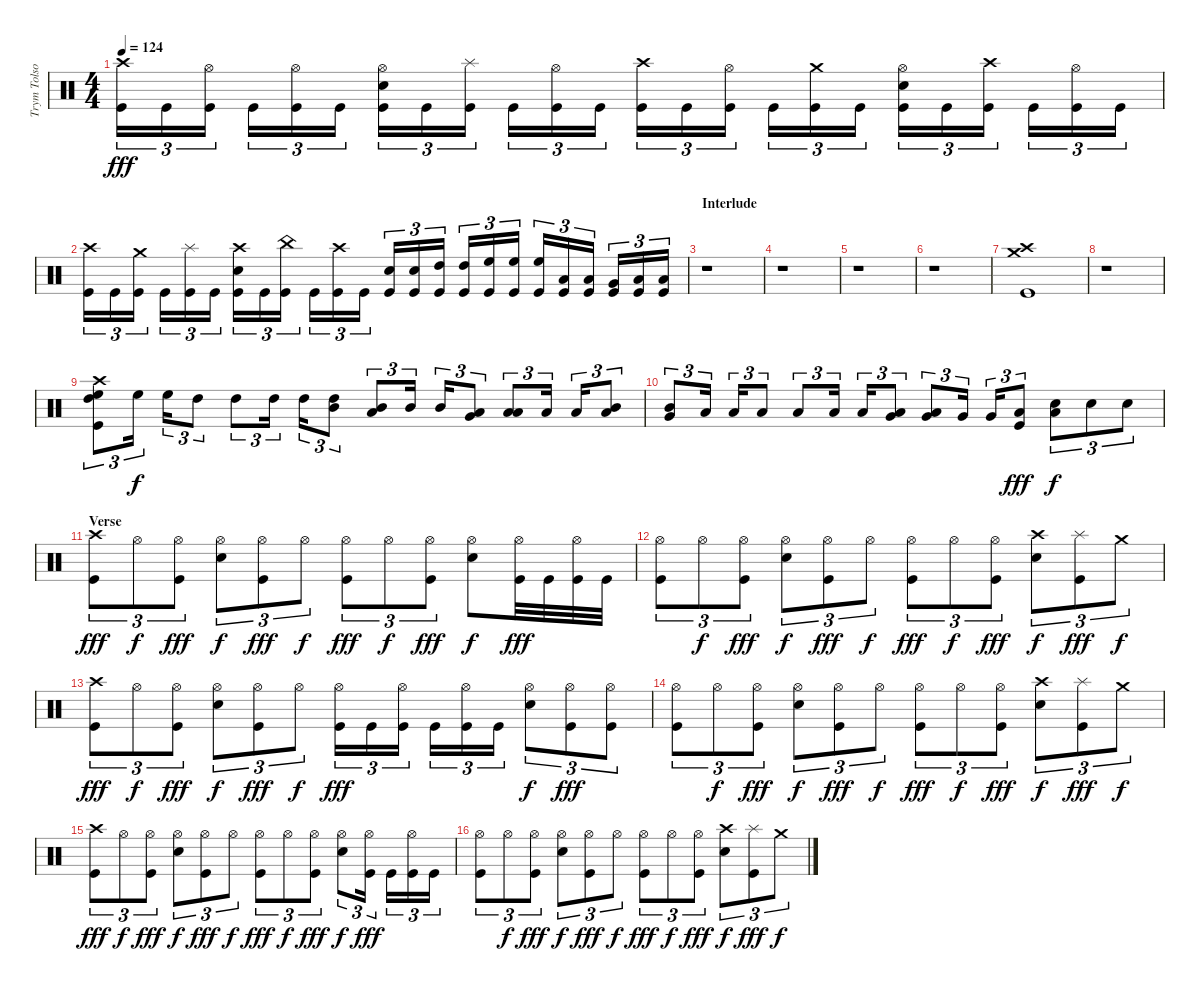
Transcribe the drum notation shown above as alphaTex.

\track ("Trym Tolson" "Trym Tolso") {instrument percussion}
\staff {score}
\articulation defaults
\ts (4 4)
\tempo 124
\clef neutral
\ks c
("Crash high (hit)" "Kick (hit)").16{tu (3 2) dy fff} "Kick (hit)".16{tu (3 2)} ("Hi-Hat (open)" "Kick (hit)").16{tu (3 2)} "Kick (hit)".16{tu (3 2)} ("Hi-Hat (open)" "Kick (hit)").16{tu (3 2)} "Kick (hit)".16{tu (3 2)} ("Hi-Hat (open)" "Electric Snare (hit)" "Kick (hit)").16{tu (3 2)} "Kick (hit)".16{tu (3 2)} ("Splash (hit)" "Kick (hit)").16{tu (3 2)} "Kick (hit)".16{tu (3 2)} ("Hi-Hat (open)" "Kick (hit)").16{tu (3 2)} "Kick (hit)".16{tu (3 2)} ("Crash high (hit)" "Kick (hit)").16{tu (3 2)} "Kick (hit)".16{tu (3 2)} ("Hi-Hat (open)" "Kick (hit)").16{tu (3 2)} "Kick (hit)".16{tu (3 2)} ("Crash medium (hit)" "Kick (hit)").16{tu (3 2)} "Kick (hit)".16{tu (3 2)} ("Hi-Hat (open)" "Electric Snare (hit)" "Kick (hit)").16{tu (3 2)} "Kick (hit)".16{tu (3 2)} ("Crash high (hit)" "Kick (hit)").16{tu (3 2)} "Kick (hit)".16{tu (3 2)} ("Hi-Hat (open)" "Kick (hit)").16{tu (3 2)} "Kick (hit)".16{tu (3 2)} |
("Crash high (hit)" "Kick (hit)").16{tu (3 2)} "Kick (hit)".16{tu (3 2)} ("Crash medium (hit)" "Kick (hit)").16{tu (3 2)} "Kick (hit)".16{tu (3 2)} ("Splash (hit)" "Kick (hit)").16{tu (3 2)} "Kick (hit)".16{tu (3 2)} ("Crash high (hit)" "Electric Snare (hit)" "Kick (hit)").16{tu (3 2)} "Kick (hit)".16{tu (3 2)} ("China (hit)" "Kick (hit)").16{tu (3 2)} "Kick (hit)".16{tu (3 2)} ("Crash high (hit)" "Kick (hit)").16{tu (3 2)} "Kick (hit)".16{tu (3 2)} ("Electric Snare (hit)" "Kick (hit)").16{tu (3 2)} ("Electric Snare (hit)" "Kick (hit)").16{tu (3 2)} ("High Tom (hit)" "Kick (hit)").16{tu (3 2)} ("High Tom (hit)" "Kick (hit)").16{tu (3 2)} ("High Floor Tom (hit)" "Kick (hit)").16{tu (3 2)} ("High Floor Tom (hit)" "Kick (hit)").16{tu (3 2)} ("High Floor Tom (hit)" "Kick (hit)").16{tu (3 2)} ("Low Tom (hit)" "Kick (hit)").16{tu (3 2)} ("Low Tom (hit)" "Kick (hit)").16{tu (3 2)} ("Very Low Tom (hit)" "Kick (hit)").16{tu (3 2)} ("Low Floor Tom (hit)" "Kick (hit)").16{tu (3 2)} ("Low Floor Tom (hit)" "Kick (hit)").16{tu (3 2)} |
\section ("" "Interlude")
r.1 |
r.1 |
r.1 |
r.1 |
("Crash high (hit)" "Crash medium (hit)" "Kick (hit)").1 |
r.1 |
("Crash high (hit)" "High Tom (hit)" "High Floor Tom (hit)" "Kick (hit)").8{tu (3 2)} "High Floor Tom (hit)".16{tu (3 2) dy f} "High Floor Tom (hit)".16{tu (3 2)} "High Tom (hit)".8{tu (3 2)} "High Tom (hit)".8{tu (3 2)} "High Tom (hit)".16{tu (3 2)} "High Tom (hit)".16{tu (3 2)} ("Mid Tom (hit)" "High Tom (hit)").8{tu (3 2)} ("Mid Tom (hit)" "Low Tom (hit)").8{tu (3 2)} "Mid Tom (hit)".16{tu (3 2)} "Mid Tom (hit)".16{tu (3 2)} ("Low Tom (hit)" "Very Low Tom (hit)").8{tu (3 2)} ("Low Tom (hit)" "Low Floor Tom (hit)").8{tu (3 2)} "Low Tom (hit)".16{tu (3 2)} "Low Tom (hit)".16{tu (3 2)} ("Mid Tom (hit)" "Low Tom (hit)").8{tu (3 2)} |
("Mid Tom (hit)" "Very Low Tom (hit)").8{tu (3 2)} "Low Tom (hit)".16{tu (3 2)} "Low Tom (hit)".16{tu (3 2)} "Low Tom (hit)".8{tu (3 2)} "Low Tom (hit)".8{tu (3 2)} "Low Tom (hit)".16{tu (3 2)} "Low Tom (hit)".16{tu (3 2)} ("Very Low Tom (hit)" "Low Floor Tom (hit)").8{tu (3 2)} ("Very Low Tom (hit)" "Low Tom (hit)").8{tu (3 2)} "Very Low Tom (hit)".16{tu (3 2)} "Very Low Tom (hit)".16{tu (3 2)} ("Low Floor Tom (hit)" "Kick (hit)").8{tu (3 2) dy fff} ("Low Floor Tom (hit)" "Electric Snare (hit)").8{tu (3 2) dy f} "Electric Snare (hit)".8{tu (3 2)} "Electric Snare (hit)".8{tu (3 2)} |
\section ("" "Verse")
("Crash high (hit)" "Kick (hit)").8{tu (3 2) dy fff} "Hi-Hat (open)".8{tu (3 2) dy f} ("Hi-Hat (open)" "Kick (hit)").8{tu (3 2) dy fff} ("Hi-Hat (open)" "Electric Snare (hit)").8{tu (3 2) dy f} ("Hi-Hat (open)" "Kick (hit)").8{tu (3 2) dy fff} "Hi-Hat (open)".8{tu (3 2) dy f} ("Hi-Hat (open)" "Kick (hit)").8{tu (3 2) dy fff} "Hi-Hat (open)".8{tu (3 2) dy f} ("Hi-Hat (open)" "Kick (hit)").8{tu (3 2) dy fff} ("Hi-Hat (open)" "Electric Snare (hit)").8{dy f} ("Hi-Hat (open)" "Kick (hit)").32{dy fff} "Kick (hit)".32 ("Hi-Hat (open)" "Kick (hit)").32 "Kick (hit)".32 |
("Hi-Hat (open)" "Kick (hit)").8{tu (3 2)} "Hi-Hat (open)".8{tu (3 2) dy f} ("Hi-Hat (open)" "Kick (hit)").8{tu (3 2) dy fff} ("Hi-Hat (open)" "Electric Snare (hit)").8{tu (3 2) dy f} ("Hi-Hat (open)" "Kick (hit)").8{tu (3 2) dy fff} "Hi-Hat (open)".8{tu (3 2) dy f} ("Hi-Hat (open)" "Kick (hit)").8{tu (3 2) dy fff} "Hi-Hat (open)".8{tu (3 2) dy f} ("Hi-Hat (open)" "Kick (hit)").8{tu (3 2) dy fff} ("Crash high (hit)" "Electric Snare (hit)").8{tu (3 2) dy f} ("Splash (hit)" "Kick (hit)").8{tu (3 2) dy fff} "Crash medium (hit)".8{tu (3 2) dy f} |
("Crash high (hit)" "Kick (hit)").8{tu (3 2) dy fff} "Hi-Hat (open)".8{tu (3 2) dy f} ("Hi-Hat (open)" "Kick (hit)").8{tu (3 2) dy fff} ("Hi-Hat (open)" "Electric Snare (hit)").8{tu (3 2) dy f} ("Hi-Hat (open)" "Kick (hit)").8{tu (3 2) dy fff} "Hi-Hat (open)".8{tu (3 2) dy f} ("Hi-Hat (open)" "Kick (hit)").16{tu (3 2) dy fff} "Kick (hit)".16{tu (3 2)} ("Hi-Hat (open)" "Kick (hit)").16{tu (3 2)} "Kick (hit)".16{tu (3 2)} ("Hi-Hat (open)" "Kick (hit)").16{tu (3 2)} "Kick (hit)".16{tu (3 2)} ("Hi-Hat (open)" "Electric Snare (hit)").8{tu (3 2) dy f} ("Hi-Hat (open)" "Kick (hit)").8{tu (3 2) dy fff} ("Hi-Hat (open)" "Kick (hit)").8{tu (3 2)} |
("Hi-Hat (open)" "Kick (hit)").8{tu (3 2)} "Hi-Hat (open)".8{tu (3 2) dy f} ("Hi-Hat (open)" "Kick (hit)").8{tu (3 2) dy fff} ("Hi-Hat (open)" "Electric Snare (hit)").8{tu (3 2) dy f} ("Hi-Hat (open)" "Kick (hit)").8{tu (3 2) dy fff} "Hi-Hat (open)".8{tu (3 2) dy f} ("Hi-Hat (open)" "Kick (hit)").8{tu (3 2) dy fff} "Hi-Hat (open)".8{tu (3 2) dy f} ("Hi-Hat (open)" "Kick (hit)").8{tu (3 2) dy fff} ("Crash high (hit)" "Electric Snare (hit)").8{tu (3 2) dy f} ("Splash (hit)" "Kick (hit)").8{tu (3 2) dy fff} "Crash medium (hit)".8{tu (3 2) dy f} |
("Crash high (hit)" "Kick (hit)").8{tu (3 2) dy fff} "Hi-Hat (open)".8{tu (3 2) dy f} ("Hi-Hat (open)" "Kick (hit)").8{tu (3 2) dy fff} ("Hi-Hat (open)" "Electric Snare (hit)").8{tu (3 2) dy f} ("Hi-Hat (open)" "Kick (hit)").8{tu (3 2) dy fff} "Hi-Hat (open)".8{tu (3 2) dy f} ("Hi-Hat (open)" "Kick (hit)").8{tu (3 2) dy fff} "Hi-Hat (open)".8{tu (3 2) dy f} ("Hi-Hat (open)" "Kick (hit)").8{tu (3 2) dy fff} ("Hi-Hat (open)" "Electric Snare (hit)").8{tu (3 2) dy f} ("Hi-Hat (open)" "Kick (hit)").16{tu (3 2) dy fff} "Kick (hit)".16{tu (3 2)} ("Hi-Hat (open)" "Kick (hit)").16{tu (3 2)} "Kick (hit)".16{tu (3 2)} |
("Hi-Hat (open)" "Kick (hit)").8{tu (3 2)} "Hi-Hat (open)".8{tu (3 2) dy f} ("Hi-Hat (open)" "Kick (hit)").8{tu (3 2) dy fff} ("Hi-Hat (open)" "Electric Snare (hit)").8{tu (3 2) dy f} ("Hi-Hat (open)" "Kick (hit)").8{tu (3 2) dy fff} "Hi-Hat (open)".8{tu (3 2) dy f} ("Hi-Hat (open)" "Kick (hit)").8{tu (3 2) dy fff} "Hi-Hat (open)".8{tu (3 2) dy f} ("Hi-Hat (open)" "Kick (hit)").8{tu (3 2) dy fff} ("Crash high (hit)" "Electric Snare (hit)").8{tu (3 2) dy f} ("Splash (hit)" "Kick (hit)").8{tu (3 2) dy fff} "Crash medium (hit)".8{tu (3 2) dy f}
